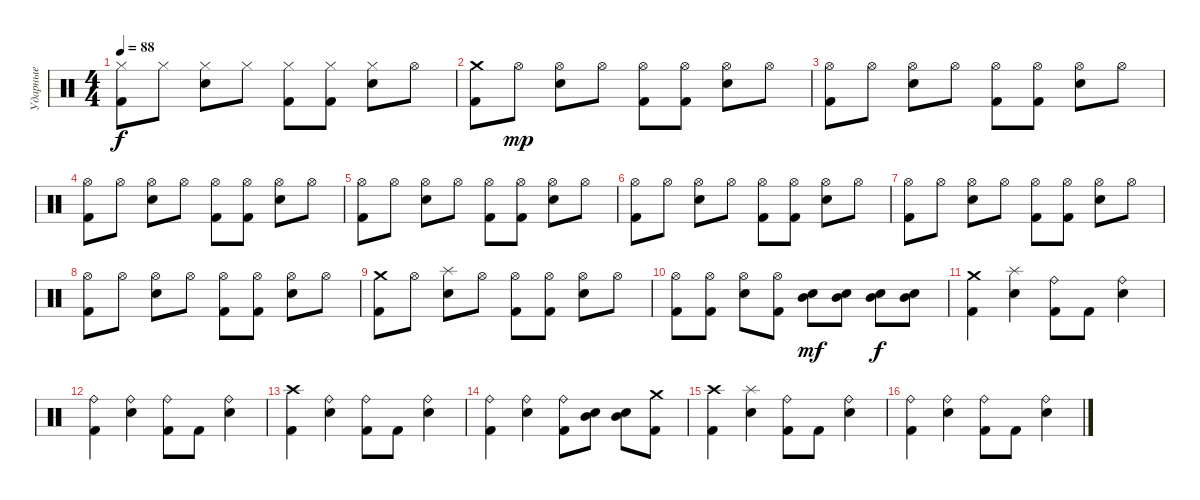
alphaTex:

\track ("Ударные" "Ударные") {instrument percussion}
\staff {score}
\articulation defaults
\ts (4 4)
\tempo 88
\clef neutral
\ks c
("Hi-Hat (closed)" "Kick (hit) 2").8{dy f} "Hi-Hat (closed)".8 ("Hi-Hat (closed)" "Electric Snare (hit)").8 "Hi-Hat (closed)".8 ("Hi-Hat (closed)" "Kick (hit) 2").8 ("Hi-Hat (closed)" "Kick (hit) 2").8 ("Hi-Hat (closed)" "Electric Snare (hit)").8 "Hi-Hat (open)".8 |
("Crash medium (hit)" "Kick (hit) 2").8 "Hi-Hat (open)".8{dy mp} ("Hi-Hat (open)" "Electric Snare (hit)").8 "Hi-Hat (open)".8 ("Hi-Hat (open)" "Kick (hit) 2").8 ("Hi-Hat (open)" "Kick (hit) 2").8 ("Hi-Hat (open)" "Electric Snare (hit)").8 "Hi-Hat (open)".8 |
("Hi-Hat (open)" "Kick (hit) 2").8 "Hi-Hat (open)".8 ("Hi-Hat (open)" "Electric Snare (hit)").8 "Hi-Hat (open)".8 ("Hi-Hat (open)" "Kick (hit) 2").8 ("Hi-Hat (open)" "Kick (hit) 2").8 ("Hi-Hat (open)" "Electric Snare (hit)").8 "Hi-Hat (open)".8 |
("Hi-Hat (open)" "Kick (hit) 2").8 "Hi-Hat (open)".8 ("Hi-Hat (open)" "Electric Snare (hit)").8 "Hi-Hat (open)".8 ("Hi-Hat (open)" "Kick (hit) 2").8 ("Hi-Hat (open)" "Kick (hit) 2").8 ("Hi-Hat (open)" "Electric Snare (hit)").8 "Hi-Hat (open)".8 |
("Hi-Hat (open)" "Kick (hit) 2").8 "Hi-Hat (open)".8 ("Hi-Hat (open)" "Electric Snare (hit)").8 "Hi-Hat (open)".8 ("Hi-Hat (open)" "Kick (hit) 2").8 ("Hi-Hat (open)" "Kick (hit) 2").8 ("Hi-Hat (open)" "Electric Snare (hit)").8 "Hi-Hat (open)".8 |
("Hi-Hat (open)" "Kick (hit) 2").8 "Hi-Hat (open)".8 ("Hi-Hat (open)" "Electric Snare (hit)").8 "Hi-Hat (open)".8 ("Hi-Hat (open)" "Kick (hit) 2").8 ("Hi-Hat (open)" "Kick (hit) 2").8 ("Hi-Hat (open)" "Electric Snare (hit)").8 "Hi-Hat (open)".8 |
("Hi-Hat (open)" "Kick (hit) 2").8 "Hi-Hat (open)".8 ("Hi-Hat (open)" "Electric Snare (hit)").8 "Hi-Hat (open)".8 ("Hi-Hat (open)" "Kick (hit) 2").8 ("Hi-Hat (open)" "Kick (hit) 2").8 ("Hi-Hat (open)" "Electric Snare (hit)").8 "Hi-Hat (open)".8 |
("Hi-Hat (open)" "Kick (hit) 2").8 "Hi-Hat (open)".8 ("Hi-Hat (open)" "Electric Snare (hit)").8 "Hi-Hat (open)".8 ("Hi-Hat (open)" "Kick (hit) 2").8 ("Hi-Hat (open)" "Kick (hit) 2").8 ("Hi-Hat (open)" "Electric Snare (hit)").8 "Hi-Hat (open)".8 |
("Crash medium (hit)" "Kick (hit) 2").8 "Hi-Hat (open)".8 ("Splash (hit)" "Electric Snare (hit)").8 "Hi-Hat (open)".8 ("Hi-Hat (open)" "Kick (hit) 2").8 ("Hi-Hat (open)" "Kick (hit) 2").8 ("Hi-Hat (open)" "Electric Snare (hit)").8 "Hi-Hat (open)".8 |
("Hi-Hat (open)" "Kick (hit) 2").8 ("Hi-Hat (open)" "Kick (hit) 2").8 ("Hi-Hat (open)" "Electric Snare (hit)").8 ("Hi-Hat (open)" "Kick (hit) 2").8 ("Mid Tom (hit)" "Electric Snare (hit)").8{dy mf} ("Mid Tom (hit)" "Electric Snare (hit)").8 ("Mid Tom (hit)" "Electric Snare (hit)").8{dy f} ("Mid Tom (hit)" "Electric Snare (hit)").8 |
("Crash medium (hit)" "Kick (hit) 2").4 ("Splash (hit)" "Electric Snare (hit)").4 ("Ride (bell)" "Kick (hit) 2").8 "Kick (hit) 2".8 ("Ride (bell)" "Electric Snare (hit)").4 |
("Ride (bell)" "Kick (hit) 2").4 ("Ride (bell)" "Electric Snare (hit)").4 ("Ride (bell)" "Kick (hit) 2").8 "Kick (hit) 2".8 ("Ride (bell)" "Electric Snare (hit)").4 |
("Crash high (hit)" "Kick (hit) 2").4 ("Ride (bell)" "Electric Snare (hit)").4 ("Ride (bell)" "Kick (hit) 2").8 "Kick (hit) 2".8 ("Ride (bell)" "Electric Snare (hit)").4 |
("Ride (bell)" "Kick (hit) 2").4 ("Ride (bell)" "Electric Snare (hit)").4 ("Ride (bell)" "Kick (hit) 2").8 ("Mid Tom (hit)" "Electric Snare (hit)").8 ("Mid Tom (hit)" "Electric Snare (hit)").8 ("Crash medium (hit)" "Kick (hit) 2").8 |
("Crash high (hit)" "Kick (hit) 2").4 ("Splash (hit)" "Electric Snare (hit)").4 ("Ride (bell)" "Kick (hit) 2").8 "Kick (hit) 2".8 ("Ride (bell)" "Electric Snare (hit)").4 |
("Ride (bell)" "Kick (hit) 2").4 ("Ride (bell)" "Electric Snare (hit)").4 ("Ride (bell)" "Kick (hit) 2").8 "Kick (hit) 2".8 ("Ride (bell)" "Electric Snare (hit)").4
